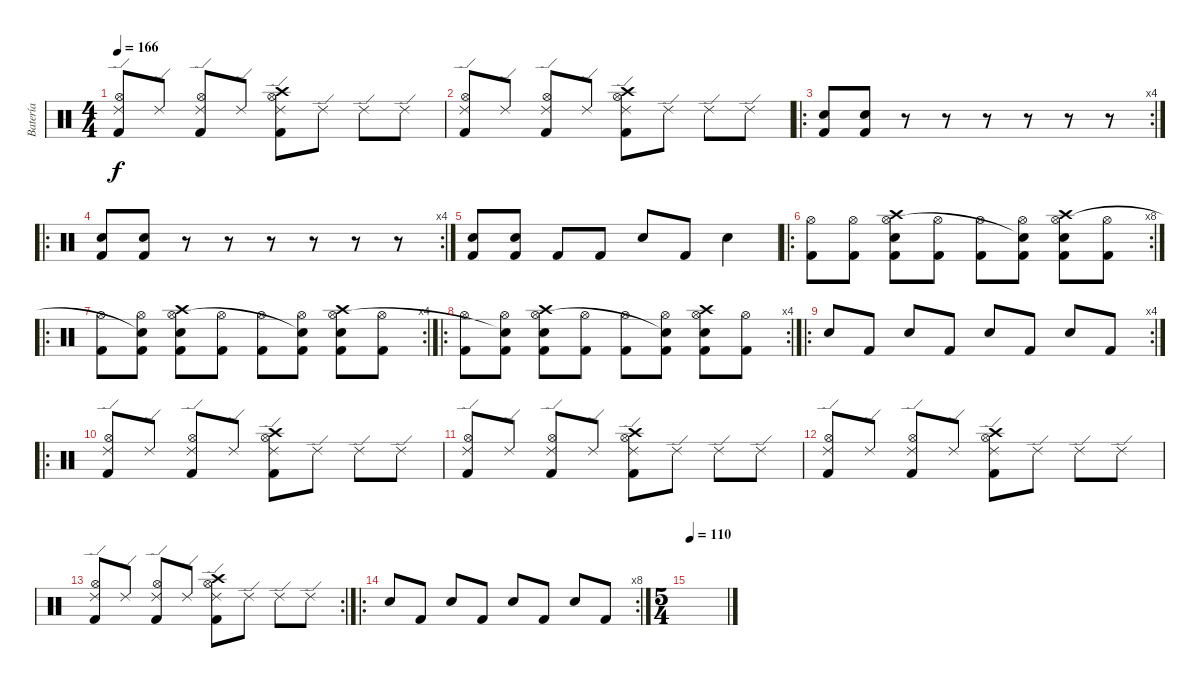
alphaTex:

\track ("Batería" "Batería") {instrument percussion}
\staff {score}
\articulation defaults
\ts (4 4)
\tempo 166
\clef neutral
\ks c
("Kick (hit) 2" "Hi-Hat (open)" "Ride (edge) 2").8{dy f} "Ride (edge) 2".8 ("Kick (hit) 2" "Hi-Hat (open)" "Ride (edge) 2").8 "Ride (edge) 2".8 ("Kick (hit) 2" "Hi-Hat (open)" "Crash high (hit)" "Ride (edge) 2").8 "Ride (edge) 2".8 "Ride (edge) 2".8 "Ride (edge) 2".8 |
("Kick (hit) 2" "Hi-Hat (open)" "Ride (edge) 2").8 "Ride (edge) 2".8 ("Kick (hit) 2" "Hi-Hat (open)" "Ride (edge) 2").8 "Ride (edge) 2".8 ("Kick (hit) 2" "Hi-Hat (open)" "Crash high (hit)" "Ride (edge) 2").8 "Ride (edge) 2".8 "Ride (edge) 2".8 "Ride (edge) 2".8 |
\ro
\rc 4
("Kick (hit) 2" "Electric Snare (hit)").8 ("Kick (hit) 2" "Electric Snare (hit)").8 r.8 r.8 r.8 r.8 r.8 r.8 |
\ro
\rc 4
("Kick (hit) 2" "Electric Snare (hit)").8 ("Kick (hit) 2" "Electric Snare (hit)").8 r.8 r.8 r.8 r.8 r.8 r.8 |
("Kick (hit) 2" "Electric Snare (hit)").8 ("Kick (hit) 2" "Electric Snare (hit)").8 "Kick (hit) 2".8 "Kick (hit) 2".8 "Electric Snare (hit)".8 "Kick (hit) 2".8 "Electric Snare (hit)".4 |
\ro
\rc 8
("Kick (hit) 2" "Hi-Hat (open)").8 ("Kick (hit) 2" "Hi-Hat (open)").8 ("Kick (hit) 2" "Electric Snare (hit)" "Hi-Hat (open)" "Crash high (hit)").8 ("Kick (hit) 2" "Hi-Hat (open)").8 ("Kick (hit) 2" "Hi-Hat (open)").8 ("Kick (hit) 2" "Hi-Hat (open)" "Snare (hit)"{t}).8 ("Kick (hit) 2" "Electric Snare (hit)" "Hi-Hat (open)" "Crash high (hit)").8 ("Kick (hit) 2" "Hi-Hat (open)").8 |
\ro
\rc 4
("Kick (hit) 2" "Hi-Hat (open)").8 ("Kick (hit) 2" "Hi-Hat (open)" "Snare (hit)"{t}).8 ("Kick (hit) 2" "Electric Snare (hit)" "Hi-Hat (open)" "Crash high (hit)").8 ("Kick (hit) 2" "Hi-Hat (open)").8 ("Kick (hit) 2" "Hi-Hat (open)").8 ("Kick (hit) 2" "Hi-Hat (open)" "Snare (hit)"{t}).8 ("Kick (hit) 2" "Electric Snare (hit)" "Hi-Hat (open)" "Crash high (hit)").8 ("Kick (hit) 2" "Hi-Hat (open)").8 |
\ro
\rc 4
("Kick (hit) 2" "Hi-Hat (open)").8 ("Kick (hit) 2" "Hi-Hat (open)" "Snare (hit)"{t}).8 ("Kick (hit) 2" "Electric Snare (hit)" "Hi-Hat (open)" "Crash high (hit)").8 ("Kick (hit) 2" "Hi-Hat (open)").8 ("Kick (hit) 2" "Hi-Hat (open)").8 ("Kick (hit) 2" "Hi-Hat (open)" "Snare (hit)"{t}).8 ("Kick (hit) 2" "Electric Snare (hit)" "Hi-Hat (open)" "Crash high (hit)").8 ("Kick (hit) 2" "Hi-Hat (open)").8 |
\ro
\rc 4 "Electric Snare (hit)".8 "Kick (hit) 2".8 "Electric Snare (hit)".8 "Kick (hit) 2".8 "Electric Snare (hit)".8 "Kick (hit) 2".8 "Electric Snare (hit)".8 "Kick (hit) 2".8
|
\ro
("Kick (hit) 2" "Hi-Hat (open)" "Ride (edge) 2").8 "Ride (edge) 2".8 ("Kick (hit) 2" "Hi-Hat (open)" "Ride (edge) 2").8 "Ride (edge) 2".8 ("Kick (hit) 2" "Hi-Hat (open)" "Crash high (hit)" "Ride (edge) 2").8 "Ride (edge) 2".8 "Ride (edge) 2".8 "Ride (edge) 2".8 |
("Kick (hit) 2" "Hi-Hat (open)" "Ride (edge) 2").8 "Ride (edge) 2".8 ("Kick (hit) 2" "Hi-Hat (open)" "Ride (edge) 2").8 "Ride (edge) 2".8 ("Kick (hit) 2" "Hi-Hat (open)" "Crash high (hit)" "Ride (edge) 2").8 "Ride (edge) 2".8 "Ride (edge) 2".8 "Ride (edge) 2".8 |
("Kick (hit) 2" "Hi-Hat (open)" "Ride (edge) 2").8 "Ride (edge) 2".8 ("Kick (hit) 2" "Hi-Hat (open)" "Ride (edge) 2").8 "Ride (edge) 2".8 ("Kick (hit) 2" "Hi-Hat (open)" "Crash high (hit)" "Ride (edge) 2").8 "Ride (edge) 2".8 "Ride (edge) 2".8 "Ride (edge) 2".8 |
\rc 2
("Kick (hit) 2" "Hi-Hat (open)" "Ride (edge) 2").8 "Ride (edge) 2".8 ("Kick (hit) 2" "Hi-Hat (open)" "Ride (edge) 2").8 "Ride (edge) 2".8 ("Kick (hit) 2" "Hi-Hat (open)" "Crash high (hit)" "Ride (edge) 2").8 "Ride (edge) 2".8 "Ride (edge) 2".8 "Ride (edge) 2".8 |
\ro
\rc 8 "Electric Snare (hit)".8 "Kick (hit) 2".8 "Electric Snare (hit)".8 "Kick (hit) 2".8 "Electric Snare (hit)".8 "Kick (hit) 2".8 "Electric Snare (hit)".8 "Kick (hit) 2".8
|
\ts (5 4)
\tempo 110
